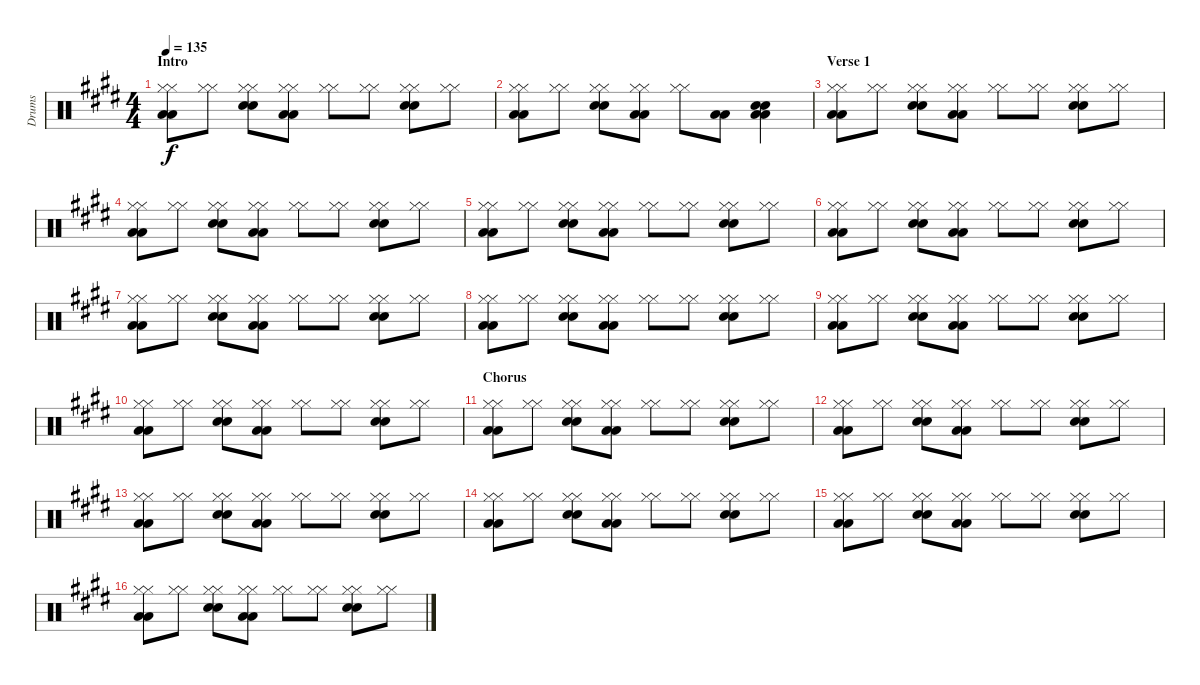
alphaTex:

\track ("Drums" "Drums") {instrument percussion}
\staff {score}
\articulation defaults
\ts (4 4)
\section ("" "Intro")
\tempo 135
\clef neutral
\ks e
("Hi-Hat (closed)" "Hi-Hat (closed)" "Low Floor Tom (hit)" "Low Floor Tom (hit)").8{dy f} ("Hi-Hat (closed)" "Hi-Hat (closed)").8 ("Hi-Hat (closed)" "Hi-Hat (closed)" "Electric Snare (hit)" "Electric Snare (hit)").8 ("Hi-Hat (closed)" "Hi-Hat (closed)" "Low Floor Tom (hit)" "Low Floor Tom (hit)").8 ("Hi-Hat (closed)" "Hi-Hat (closed)").8 ("Hi-Hat (closed)" "Hi-Hat (closed)").8 ("Hi-Hat (closed)" "Hi-Hat (closed)" "Electric Snare (hit)" "Electric Snare (hit)").8 ("Hi-Hat (closed)" "Hi-Hat (closed)").8 |
("Hi-Hat (closed)" "Hi-Hat (closed)" "Low Floor Tom (hit)" "Low Floor Tom (hit)").8 ("Hi-Hat (closed)" "Hi-Hat (closed)").8 ("Hi-Hat (closed)" "Hi-Hat (closed)" "Electric Snare (hit)" "Electric Snare (hit)").8 ("Hi-Hat (closed)" "Hi-Hat (closed)" "Low Floor Tom (hit)" "Low Floor Tom (hit)").8 ("Hi-Hat (closed)" "Hi-Hat (closed)").8 ("Low Tom (hit)" "Low Tom (hit)").8 ("Electric Snare (hit)" "Electric Snare (hit)" "Low Tom (hit)" "Low Tom (hit)").4 |
\section ("" "Verse 1")
("Hi-Hat (closed)" "Hi-Hat (closed)" "Low Floor Tom (hit)" "Low Floor Tom (hit)").8 ("Hi-Hat (closed)" "Hi-Hat (closed)").8 ("Hi-Hat (closed)" "Hi-Hat (closed)" "Electric Snare (hit)" "Electric Snare (hit)").8 ("Hi-Hat (closed)" "Hi-Hat (closed)" "Low Floor Tom (hit)" "Low Floor Tom (hit)").8 ("Hi-Hat (closed)" "Hi-Hat (closed)").8 ("Hi-Hat (closed)" "Hi-Hat (closed)").8 ("Hi-Hat (closed)" "Hi-Hat (closed)" "Electric Snare (hit)" "Electric Snare (hit)").8 ("Hi-Hat (closed)" "Hi-Hat (closed)").8 |
("Hi-Hat (closed)" "Hi-Hat (closed)" "Low Floor Tom (hit)" "Low Floor Tom (hit)").8 ("Hi-Hat (closed)" "Hi-Hat (closed)").8 ("Hi-Hat (closed)" "Hi-Hat (closed)" "Electric Snare (hit)" "Electric Snare (hit)").8 ("Hi-Hat (closed)" "Hi-Hat (closed)" "Low Floor Tom (hit)" "Low Floor Tom (hit)").8 ("Hi-Hat (closed)" "Hi-Hat (closed)").8 ("Hi-Hat (closed)" "Hi-Hat (closed)").8 ("Hi-Hat (closed)" "Hi-Hat (closed)" "Electric Snare (hit)" "Electric Snare (hit)").8 ("Hi-Hat (closed)" "Hi-Hat (closed)").8 |
("Hi-Hat (closed)" "Hi-Hat (closed)" "Low Floor Tom (hit)" "Low Floor Tom (hit)").8 ("Hi-Hat (closed)" "Hi-Hat (closed)").8 ("Hi-Hat (closed)" "Hi-Hat (closed)" "Electric Snare (hit)" "Electric Snare (hit)").8 ("Hi-Hat (closed)" "Hi-Hat (closed)" "Low Floor Tom (hit)" "Low Floor Tom (hit)").8 ("Hi-Hat (closed)" "Hi-Hat (closed)").8 ("Hi-Hat (closed)" "Hi-Hat (closed)").8 ("Hi-Hat (closed)" "Hi-Hat (closed)" "Electric Snare (hit)" "Electric Snare (hit)").8 ("Hi-Hat (closed)" "Hi-Hat (closed)").8 |
("Hi-Hat (closed)" "Hi-Hat (closed)" "Low Floor Tom (hit)" "Low Floor Tom (hit)").8 ("Hi-Hat (closed)" "Hi-Hat (closed)").8 ("Hi-Hat (closed)" "Hi-Hat (closed)" "Electric Snare (hit)" "Electric Snare (hit)").8 ("Hi-Hat (closed)" "Hi-Hat (closed)" "Low Floor Tom (hit)" "Low Floor Tom (hit)").8 ("Hi-Hat (closed)" "Hi-Hat (closed)").8 ("Hi-Hat (closed)" "Hi-Hat (closed)").8 ("Hi-Hat (closed)" "Hi-Hat (closed)" "Electric Snare (hit)" "Electric Snare (hit)").8 ("Hi-Hat (closed)" "Hi-Hat (closed)").8 |
("Hi-Hat (closed)" "Hi-Hat (closed)" "Low Floor Tom (hit)" "Low Floor Tom (hit)").8 ("Hi-Hat (closed)" "Hi-Hat (closed)").8 ("Hi-Hat (closed)" "Hi-Hat (closed)" "Electric Snare (hit)" "Electric Snare (hit)").8 ("Hi-Hat (closed)" "Hi-Hat (closed)" "Low Floor Tom (hit)" "Low Floor Tom (hit)").8 ("Hi-Hat (closed)" "Hi-Hat (closed)").8 ("Hi-Hat (closed)" "Hi-Hat (closed)").8 ("Hi-Hat (closed)" "Hi-Hat (closed)" "Electric Snare (hit)" "Electric Snare (hit)").8 ("Hi-Hat (closed)" "Hi-Hat (closed)").8 |
("Hi-Hat (closed)" "Hi-Hat (closed)" "Low Floor Tom (hit)" "Low Floor Tom (hit)").8 ("Hi-Hat (closed)" "Hi-Hat (closed)").8 ("Hi-Hat (closed)" "Hi-Hat (closed)" "Electric Snare (hit)" "Electric Snare (hit)").8 ("Hi-Hat (closed)" "Hi-Hat (closed)" "Low Floor Tom (hit)" "Low Floor Tom (hit)").8 ("Hi-Hat (closed)" "Hi-Hat (closed)").8 ("Hi-Hat (closed)" "Hi-Hat (closed)").8 ("Hi-Hat (closed)" "Hi-Hat (closed)" "Electric Snare (hit)" "Electric Snare (hit)").8 ("Hi-Hat (closed)" "Hi-Hat (closed)").8 |
("Hi-Hat (closed)" "Hi-Hat (closed)" "Low Floor Tom (hit)" "Low Floor Tom (hit)").8 ("Hi-Hat (closed)" "Hi-Hat (closed)").8 ("Hi-Hat (closed)" "Hi-Hat (closed)" "Electric Snare (hit)" "Electric Snare (hit)").8 ("Hi-Hat (closed)" "Hi-Hat (closed)" "Low Floor Tom (hit)" "Low Floor Tom (hit)").8 ("Hi-Hat (closed)" "Hi-Hat (closed)").8 ("Hi-Hat (closed)" "Hi-Hat (closed)").8 ("Hi-Hat (closed)" "Hi-Hat (closed)" "Electric Snare (hit)" "Electric Snare (hit)").8 ("Hi-Hat (closed)" "Hi-Hat (closed)").8 |
("Hi-Hat (closed)" "Hi-Hat (closed)" "Low Floor Tom (hit)" "Low Floor Tom (hit)").8 ("Hi-Hat (closed)" "Hi-Hat (closed)").8 ("Hi-Hat (closed)" "Hi-Hat (closed)" "Electric Snare (hit)" "Electric Snare (hit)").8 ("Hi-Hat (closed)" "Hi-Hat (closed)" "Low Floor Tom (hit)" "Low Floor Tom (hit)").8 ("Hi-Hat (closed)" "Hi-Hat (closed)").8 ("Hi-Hat (closed)" "Hi-Hat (closed)").8 ("Hi-Hat (closed)" "Hi-Hat (closed)" "Electric Snare (hit)" "Electric Snare (hit)").8 ("Hi-Hat (closed)" "Hi-Hat (closed)").8 |
\section ("" "Chorus")
("Hi-Hat (closed)" "Hi-Hat (closed)" "Low Floor Tom (hit)" "Low Floor Tom (hit)").8 ("Hi-Hat (closed)" "Hi-Hat (closed)").8 ("Hi-Hat (closed)" "Hi-Hat (closed)" "Electric Snare (hit)" "Electric Snare (hit)").8 ("Hi-Hat (closed)" "Hi-Hat (closed)" "Low Floor Tom (hit)" "Low Floor Tom (hit)").8 ("Hi-Hat (closed)" "Hi-Hat (closed)").8 ("Hi-Hat (closed)" "Hi-Hat (closed)").8 ("Hi-Hat (closed)" "Hi-Hat (closed)" "Electric Snare (hit)" "Electric Snare (hit)").8 ("Hi-Hat (closed)" "Hi-Hat (closed)").8 |
("Hi-Hat (closed)" "Hi-Hat (closed)" "Low Floor Tom (hit)" "Low Floor Tom (hit)").8 ("Hi-Hat (closed)" "Hi-Hat (closed)").8 ("Hi-Hat (closed)" "Hi-Hat (closed)" "Electric Snare (hit)" "Electric Snare (hit)").8 ("Hi-Hat (closed)" "Hi-Hat (closed)" "Low Floor Tom (hit)" "Low Floor Tom (hit)").8 ("Hi-Hat (closed)" "Hi-Hat (closed)").8 ("Hi-Hat (closed)" "Hi-Hat (closed)").8 ("Hi-Hat (closed)" "Hi-Hat (closed)" "Electric Snare (hit)" "Electric Snare (hit)").8 ("Hi-Hat (closed)" "Hi-Hat (closed)").8 |
("Hi-Hat (closed)" "Hi-Hat (closed)" "Low Floor Tom (hit)" "Low Floor Tom (hit)").8 ("Hi-Hat (closed)" "Hi-Hat (closed)").8 ("Hi-Hat (closed)" "Hi-Hat (closed)" "Electric Snare (hit)" "Electric Snare (hit)").8 ("Hi-Hat (closed)" "Hi-Hat (closed)" "Low Floor Tom (hit)" "Low Floor Tom (hit)").8 ("Hi-Hat (closed)" "Hi-Hat (closed)").8 ("Hi-Hat (closed)" "Hi-Hat (closed)").8 ("Hi-Hat (closed)" "Hi-Hat (closed)" "Electric Snare (hit)" "Electric Snare (hit)").8 ("Hi-Hat (closed)" "Hi-Hat (closed)").8 |
("Hi-Hat (closed)" "Hi-Hat (closed)" "Low Floor Tom (hit)" "Low Floor Tom (hit)").8 ("Hi-Hat (closed)" "Hi-Hat (closed)").8 ("Hi-Hat (closed)" "Hi-Hat (closed)" "Electric Snare (hit)" "Electric Snare (hit)").8 ("Hi-Hat (closed)" "Hi-Hat (closed)" "Low Floor Tom (hit)" "Low Floor Tom (hit)").8 ("Hi-Hat (closed)" "Hi-Hat (closed)").8 ("Hi-Hat (closed)" "Hi-Hat (closed)").8 ("Hi-Hat (closed)" "Hi-Hat (closed)" "Electric Snare (hit)" "Electric Snare (hit)").8 ("Hi-Hat (closed)" "Hi-Hat (closed)").8 |
("Hi-Hat (closed)" "Hi-Hat (closed)" "Low Floor Tom (hit)" "Low Floor Tom (hit)").8 ("Hi-Hat (closed)" "Hi-Hat (closed)").8 ("Hi-Hat (closed)" "Hi-Hat (closed)" "Electric Snare (hit)" "Electric Snare (hit)").8 ("Hi-Hat (closed)" "Hi-Hat (closed)" "Low Floor Tom (hit)" "Low Floor Tom (hit)").8 ("Hi-Hat (closed)" "Hi-Hat (closed)").8 ("Hi-Hat (closed)" "Hi-Hat (closed)").8 ("Hi-Hat (closed)" "Hi-Hat (closed)" "Electric Snare (hit)" "Electric Snare (hit)").8 ("Hi-Hat (closed)" "Hi-Hat (closed)").8 |
("Hi-Hat (closed)" "Hi-Hat (closed)" "Low Floor Tom (hit)" "Low Floor Tom (hit)").8 ("Hi-Hat (closed)" "Hi-Hat (closed)").8 ("Hi-Hat (closed)" "Hi-Hat (closed)" "Electric Snare (hit)" "Electric Snare (hit)").8 ("Hi-Hat (closed)" "Hi-Hat (closed)" "Low Floor Tom (hit)" "Low Floor Tom (hit)").8 ("Hi-Hat (closed)" "Hi-Hat (closed)").8 ("Hi-Hat (closed)" "Hi-Hat (closed)").8 ("Hi-Hat (closed)" "Hi-Hat (closed)" "Electric Snare (hit)" "Electric Snare (hit)").8 ("Hi-Hat (closed)" "Hi-Hat (closed)").8
